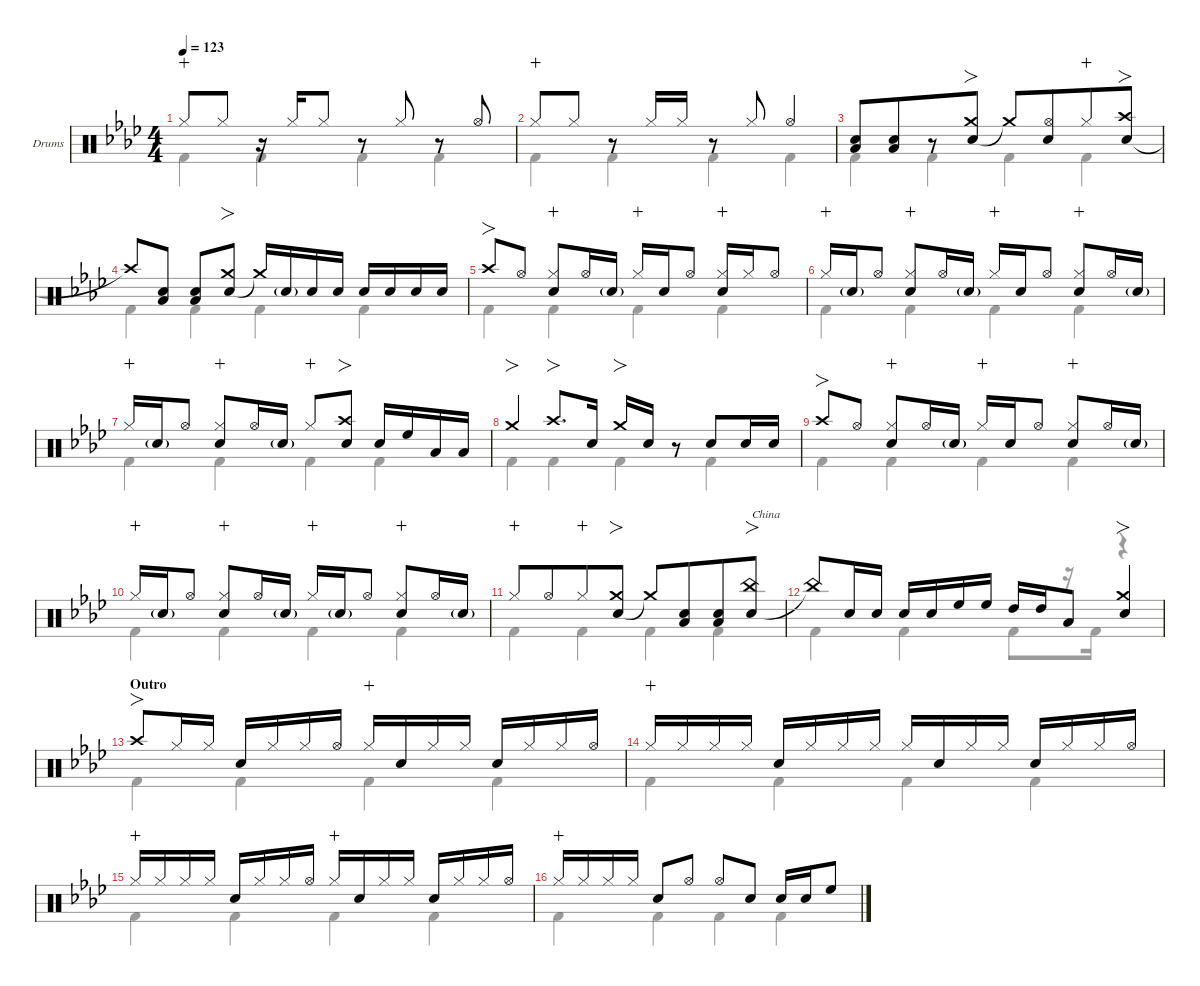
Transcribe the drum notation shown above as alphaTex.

\defaultSystemsLayout 4
\hideDynamics
\bracketExtendMode nobrackets
\firstSystemTrackNameOrientation horizontal
\track ("Drums" "Drums") {defaultSystemsLayout 4 instrument percussion}
\staff {score}
\articulation defaults
\voice
\ts (4 4)
\tempo 123
\clef neutral
\scale
0.266618
\ks ab "Hi-Hat (closed)"{acc forcenatural}.8{dy mp wahc beam Up} "Hi-Hat (closed)"{acc forcenatural}.8{dy f beam Up}
r.16{beam Up} "Hi-Hat (closed)"{acc forcenatural}.16{beam Up} "Hi-Hat (closed)"{acc forcenatural}.8{dy mf beam Up} r.8{beam Up} "Hi-Hat (closed)"{acc forcenatural}.8{dy f beam Up} r.8{beam Up} "Hi-Hat (open)"{acc forcenatural}.8{beam Up} |
\scale
0.244461 "Hi-Hat (closed)"{acc forcenatural}.8{dy mp wahc beam Up} "Hi-Hat (closed)"{acc forcenatural}.8{dy f beam Up} r.8{beam Up} "Hi-Hat (closed)"{acc forcenatural}.16{beam Up} "Hi-Hat (closed)"{acc forcenatural}.16{dy mf beam Up} r.8{beam Up} "Hi-Hat (closed)"{acc forcenatural}.8{dy f beam Up} "Hi-Hat (open)"{acc forcenatural}.4{beam Up} |
\scale
0.24446 ("Low Tom (hit)"{acc forcenatural} "Snare (hit) 2"{acc forcenatural}).8{beam Up beam merge} ("Low Tom (hit)"{acc forcenatural} "Snare (hit) 2"{acc forcenatural}).8{beam Up beam merge} r.8{beam Up beam merge} ("Snare (hit) 2"{acc forcenatural} "Crash medium (hit)"{acc forcenatural}).8{fo beam Up} "Crash medium (hit)"{t acc forcenatural}.8{beam Up beam merge} ("Snare (hit) 2"{acc forcenatural} "Hi-Hat (open)"{acc forcenatural}).8{beam Up beam merge} "Hi-Hat (closed)"{acc forcenatural}.8{dy mp wahc beam Up} ("Snare (hit) 2"{acc forcenatural} "Crash high (hit)"{acc forcenatural}).8{fo dy f beam Up} |
\scale
0.244461 "Crash high (hit)"{t acc forcenatural}.8{beam Up} ("Snare (hit) 2"{acc forcenatural} "Low Tom (hit)"{acc forcenatural}).8{beam Up} ("Snare (hit) 2"{acc forcenatural} "Low Tom (hit)"{acc forcenatural}).8{beam Up} ("Snare (hit) 2"{acc forcenatural} "Crash medium (hit)"{acc forcenatural}).8{fo beam Up} "Crash medium (hit)"{t acc forcenatural}.16{beam Up} "Snare (hit) 2"{g acc forcenatural}.16{dy mf beam Up} "Snare (hit) 2"{acc forcenatural}.16{dy f beam Up} "Snare (hit) 2"{acc forcenatural}.16{dy mf beam Up} "Snare (hit) 2"{acc forcenatural}.16{dy f beam Up} "Snare (hit) 2"{acc forcenatural}.16{dy mf beam Up} "Snare (hit) 2"{acc forcenatural}.16{dy f beam Up} "Snare (hit) 2"{acc forcenatural}.16{dy mf beam Up} |
\scale
0.266618 "Crash high (hit)"{acc forcenatural}.8{fo dy f beam Up} "Hi-Hat (open)"{acc forcenatural}.8{beam Up} ("Snare (hit) 2"{acc forcenatural} "Hi-Hat (closed)"{acc forcenatural}).8{wahc beam Up beam merge} "Hi-Hat (open)"{acc forcenatural}.16{beam Up} "Snare (hit) 2"{g acc forcenatural}.16{dy mf beam Up} "Hi-Hat (closed)"{acc forcenatural}.16{dy mp wahc beam Up} "Snare (hit) 2"{acc forcenatural}.16{dy f beam Up} "Hi-Hat (open)"{acc forcenatural}.8{beam Up} ("Snare (hit) 2"{acc forcenatural} "Hi-Hat (closed)"{acc forcenatural}).16{wahc beam Up} "Hi-Hat (closed)"{acc forcenatural}.16{beam Up} "Hi-Hat (open)"{acc forcenatural}.8{beam Up} |
\scale
0.244461 "Hi-Hat (closed)"{acc forcenatural}.16{dy mp wahc beam Up} "Snare (hit) 2"{g acc forcenatural}.16{dy mf beam Up} "Hi-Hat (open)"{acc forcenatural}.8{dy f beam Up} ("Snare (hit) 2"{acc forcenatural} "Hi-Hat (closed)"{acc forcenatural}).8{wahc beam Up beam merge} "Hi-Hat (open)"{acc forcenatural}.16{beam Up} "Snare (hit) 2"{g acc forcenatural}.16{dy mf beam Up} "Hi-Hat (closed)"{acc forcenatural}.16{dy mp wahc beam Up} "Snare (hit) 2"{acc forcenatural}.16{dy f beam Up} "Hi-Hat (open)"{acc forcenatural}.8{beam Up} ("Snare (hit) 2"{acc forcenatural} "Hi-Hat (closed)"{acc forcenatural}).8{wahc beam Up beam merge} "Hi-Hat (open)"{acc forcenatural}.16{beam Up} "Snare (hit) 2"{g acc forcenatural}.16{dy mf beam Up} |
\scale
0.24446 "Hi-Hat (closed)"{acc forcenatural}.16{dy mp wahc beam Up} "Snare (hit) 2"{g acc forcenatural}.16{dy mf beam Up} "Hi-Hat (open)"{acc forcenatural}.8{dy f beam Up} ("Snare (hit) 2"{acc forcenatural} "Hi-Hat (closed)"{acc forcenatural}).8{wahc beam Up beam merge} "Hi-Hat (open)"{acc forcenatural}.16{beam Up} "Snare (hit) 2"{g acc forcenatural}.16{dy mf beam Up} "Hi-Hat (closed)"{acc forcenatural}.8{dy mp wahc beam Up} ("Snare (hit) 2"{acc forcenatural} "Crash high (hit)"{acc forcenatural}).8{fo dy f beam Up} "Snare (hit) 2"{acc forcenatural}.16{beam Up} "High Floor Tom (hit)"{acc forcenatural}.16{beam Up} "Low Tom (hit)"{acc forcenatural}.16{beam Up} "Low Tom (hit)"{acc forcenatural}.16{beam Up} |
\scale
0.244461 "Crash medium (hit)"{acc forcenatural}.4{fo beam Up} "Crash high (hit)"{acc forcenatural}.8{fo d beam Up} "Snare (hit) 2"{acc forcenatural}.16{beam Up} "Crash medium (hit)"{acc forcenatural}.16{fo beam Up} "Snare (hit) 2"{acc forcenatural}.16{beam Up} r.8{beam Up} "Snare (hit) 2"{acc forcenatural}.8{beam Up} "Snare (hit) 2"{acc forcenatural}.16{beam Up} "Snare (hit) 2"{acc forcenatural}.16{dy mf beam Up} |
\scale
0.266618 "Crash high (hit)"{acc forcenatural}.8{fo dy f beam Up} "Hi-Hat (open)"{acc forcenatural}.8{beam Up} ("Snare (hit) 2"{acc forcenatural} "Hi-Hat (closed)"{acc forcenatural}).8{wahc beam Up beam merge} "Hi-Hat (open)"{acc forcenatural}.16{beam Up} "Snare (hit) 2"{g acc forcenatural}.16{dy mf beam Up} "Hi-Hat (closed)"{acc forcenatural}.16{dy mp wahc beam Up} "Snare (hit) 2"{acc forcenatural}.16{dy f beam Up} "Hi-Hat (open)"{acc forcenatural}.8{beam Up} ("Snare (hit) 2"{acc forcenatural} "Hi-Hat (closed)"{acc forcenatural}).8{wahc beam Up beam merge} "Hi-Hat (open)"{acc forcenatural}.16{beam Up} "Snare (hit) 2"{g acc forcenatural}.16{dy mf beam Up} |
\scale
0.244461 "Hi-Hat (closed)"{acc forcenatural}.16{dy mp wahc beam Up} "Snare (hit) 2"{g acc forcenatural}.16{dy mf beam Up} "Hi-Hat (open)"{acc forcenatural}.8{dy f beam Up} ("Snare (hit) 2"{acc forcenatural} "Hi-Hat (closed)"{acc forcenatural}).8{wahc beam Up beam merge} "Hi-Hat (open)"{acc forcenatural}.16{beam Up} "Snare (hit) 2"{g acc forcenatural}.16{dy mf beam Up} "Hi-Hat (closed)"{acc forcenatural}.16{dy mp wahc beam Up} "Snare (hit) 2"{g acc forcenatural}.16{dy mf beam Up} "Hi-Hat (open)"{acc forcenatural}.8{dy f beam Up} ("Snare (hit) 2"{acc forcenatural} "Hi-Hat (closed)"{acc forcenatural}).8{wahc beam Up beam merge} "Hi-Hat (open)"{acc forcenatural}.16{beam Up} "Snare (hit) 2"{g acc forcenatural}.16{dy mf beam Up} |
\scale
0.24446 "Hi-Hat (closed)"{acc forcenatural}.8{dy mp wahc beam Up beam merge} "Hi-Hat (open)"{acc forcenatural}.8{dy f beam Up beam merge} "Hi-Hat (closed)"{acc forcenatural}.8{wahc beam Up beam merge} ("Snare (hit) 2"{acc forcenatural} "Crash medium (hit)"{acc forcenatural}).8{fo beam Up} "Crash medium (hit)"{t acc forcenatural}.8{beam Up beam merge} ("Snare (hit) 2"{acc forcenatural} "Low Tom (hit)"{acc forcenatural}).8{beam Up beam merge} ("Snare (hit) 2"{acc forcenatural} "Low Tom (hit)"{acc forcenatural}).8{beam Up beam merge} ("Snare (hit) 2"{acc forcenatural} "China (hit)"{acc forcenatural}).8{fo txt "China" beam Up} |
\scale
0.244461 "China (hit)"{t acc forcenatural}.8{beam Up} "Snare (hit) 2"{acc forcenatural}.16{beam Up} "Snare (hit) 2"{acc forcenatural}.16{dy mf beam Up} "Snare (hit) 2"{acc forcenatural}.16{dy f beam Up} "Snare (hit) 2"{acc forcenatural}.16{dy mf beam Up} "High Floor Tom (hit)"{acc forcenatural}.16{dy f beam Up} "High Floor Tom (hit)"{acc forcenatural}.16{beam Up} "High Tom (hit)"{acc forcenatural}.16{beam Up} "High Tom (hit)"{acc forcenatural}.16{beam Up} "Low Tom (hit)"{acc forcenatural}.8{beam Up} ("Snare (hit) 2"{acc forcenatural} "Crash medium (hit)"{acc forcenatural}).4{fo beam Up} |
\section ("" "Outro")
\scale
0.266618 "Crash high (hit)"{acc forcenatural}.8{fo beam Up} "Hi-Hat (closed)"{acc forcenatural}.16{beam Up} "Hi-Hat (closed)"{acc forcenatural}.16{dy mp beam Up} "Snare (hit) 2"{acc forcenatural}.16{dy f beam Up} "Hi-Hat (closed)"{acc forcenatural}.16{dy mp beam Up} "Hi-Hat (closed)"{acc forcenatural}.16{dy f beam Up} "Hi-Hat (open)"{acc forcenatural}.16{beam Up} "Hi-Hat (closed)"{acc forcenatural}.16{dy mp wahc beam Up} "Snare (hit) 2"{acc forcenatural}.16{dy f beam Up} "Hi-Hat (closed)"{acc forcenatural}.16{beam Up} "Hi-Hat (closed)"{acc forcenatural}.16{dy mp beam Up} "Snare (hit) 2"{acc forcenatural}.16{dy f beam Up} "Hi-Hat (closed)"{acc forcenatural}.16{dy mp beam Up} "Hi-Hat (closed)"{acc forcenatural}.16{dy f beam Up} "Hi-Hat (open)"{acc forcenatural}.16{beam Up} |
\scale
0.244461 "Hi-Hat (closed)"{acc forcenatural}.16{dy mp wahc beam Up} "Hi-Hat (closed)"{acc forcenatural}.16{beam Up} "Hi-Hat (closed)"{acc forcenatural}.16{dy f beam Up} "Hi-Hat (closed)"{acc forcenatural}.16{dy mp beam Up} "Snare (hit) 2"{acc forcenatural}.16{dy f beam Up} "Hi-Hat (closed)"{acc forcenatural}.16{dy mp beam Up} "Hi-Hat (closed)"{acc forcenatural}.16{dy f beam Up} "Hi-Hat (closed)"{acc forcenatural}.16{dy mp beam Up} "Hi-Hat (closed)"{acc forcenatural}.16{dy f beam Up} "Snare (hit) 2"{acc forcenatural}.16{beam Up} "Hi-Hat (closed)"{acc forcenatural}.16{beam Up} "Hi-Hat (closed)"{acc forcenatural}.16{dy mp beam Up} "Snare (hit) 2"{acc forcenatural}.16{dy f beam Up} "Hi-Hat (closed)"{acc forcenatural}.16{dy mp beam Up} "Hi-Hat (closed)"{acc forcenatural}.16{dy f beam Up} "Hi-Hat (open)"{acc forcenatural}.16{beam Up} |
\scale
0.24446 "Hi-Hat (closed)"{acc forcenatural}.16{dy mp wahc beam Up} "Hi-Hat (closed)"{acc forcenatural}.16{beam Up} "Hi-Hat (closed)"{acc forcenatural}.16{dy f beam Up} "Hi-Hat (closed)"{acc forcenatural}.16{dy mp beam Up} "Snare (hit) 2"{acc forcenatural}.16{dy f beam Up} "Hi-Hat (closed)"{acc forcenatural}.16{dy mp beam Up} "Hi-Hat (closed)"{acc forcenatural}.16{dy f beam Up} "Hi-Hat (open)"{acc forcenatural}.16{beam Up} "Hi-Hat (closed)"{acc forcenatural}.16{dy mp wahc beam Up} "Snare (hit) 2"{acc forcenatural}.16{dy f beam Up} "Hi-Hat (closed)"{acc forcenatural}.16{beam Up} "Hi-Hat (closed)"{acc forcenatural}.16{dy mp beam Up} "Snare (hit) 2"{acc forcenatural}.16{dy f beam Up} "Hi-Hat (closed)"{acc forcenatural}.16{dy mp beam Up} "Hi-Hat (closed)"{acc forcenatural}.16{dy f beam Up} "Hi-Hat (open)"{acc forcenatural}.16{beam Up} |
\scale
0.244461 "Hi-Hat (closed)"{acc forcenatural}.16{dy mp wahc beam Up} "Hi-Hat (closed)"{acc forcenatural}.16{beam Up} "Hi-Hat (closed)"{acc forcenatural}.16{dy f beam Up} "Hi-Hat (closed)"{acc forcenatural}.16{dy mp beam Up} "Snare (hit) 2"{acc forcenatural}.8{dy f beam Up} "Hi-Hat (open)"{acc forcenatural}.8{dy mp beam Up} "Hi-Hat (open)"{acc forcenatural}.8{dy mf beam Up} "Snare (hit) 2"{acc forcenatural}.8{dy f beam Up} "Snare (hit) 2"{acc forcenatural}.16{beam Up} "Snare (hit) 2"{acc forcenatural}.16{beam Up} "High Floor Tom (hit)"{acc forcenatural}.8{beam Up}
\voice
\clef neutral
\ottava regular
\simile none
\scale
0.266618
\ks ab "Kick (hit) 2"{acc forcenatural}.4{dy f beam Down} "Kick (hit) 2"{acc forcenatural}.4{beam Down} "Kick (hit) 2"{acc forcenatural}.4{beam Down} "Kick (hit) 2"{acc forcenatural}.4{beam Down}
|
\scale
0.244461 "Kick (hit) 2"{acc forcenatural}.4{beam Down} "Kick (hit) 2"{acc forcenatural}.4{beam Down} "Kick (hit) 2"{acc forcenatural}.4{beam Down} "Kick (hit) 2"{acc forcenatural}.4{beam Down} |
\scale
0.24446 "Kick (hit) 2"{acc forcenatural}.4{beam Down} "Kick (hit) 2"{acc forcenatural}.4{beam Down} "Kick (hit) 2"{acc forcenatural}.4{beam Down} "Kick (hit) 2"{acc forcenatural}.4{beam Down} |
\scale
0.244461 "Kick (hit) 2"{acc forcenatural}.4{beam Down} "Kick (hit) 2"{acc forcenatural}.4{beam Down} "Kick (hit) 2"{acc forcenatural}.4{beam Down} "Kick (hit) 2"{acc forcenatural}.4{beam Down} |
\scale
0.266618 "Kick (hit) 2"{acc forcenatural}.4{beam Down} "Kick (hit) 2"{acc forcenatural}.4{beam Down} "Kick (hit) 2"{acc forcenatural}.4{beam Down} "Kick (hit) 2"{acc forcenatural}.4{beam Down} |
\scale
0.244461 "Kick (hit) 2"{acc forcenatural}.4{beam Down} "Kick (hit) 2"{acc forcenatural}.4{beam Down} "Kick (hit) 2"{acc forcenatural}.4{beam Down} "Kick (hit) 2"{acc forcenatural}.4{beam Down} |
\scale
0.24446 "Kick (hit) 2"{acc forcenatural}.4{beam Down} "Kick (hit) 2"{acc forcenatural}.4{beam Down} "Kick (hit) 2"{acc forcenatural}.4{beam Down} "Kick (hit) 2"{acc forcenatural}.4{beam Down} |
\scale
0.244461 "Kick (hit) 2"{acc forcenatural}.4{beam Down} "Kick (hit) 2"{acc forcenatural}.4{beam Down} "Kick (hit) 2"{acc forcenatural}.4{beam Down} "Kick (hit) 2"{acc forcenatural}.4{beam Down} |
\scale
0.266618 "Kick (hit) 2"{acc forcenatural}.4{beam Down} "Kick (hit) 2"{acc forcenatural}.4{beam Down} "Kick (hit) 2"{acc forcenatural}.4{beam Down} "Kick (hit) 2"{acc forcenatural}.4{beam Down} |
\scale
0.244461 "Kick (hit) 2"{acc forcenatural}.4{beam Down} "Kick (hit) 2"{acc forcenatural}.4{beam Down} "Kick (hit) 2"{acc forcenatural}.4{beam Down} "Kick (hit) 2"{acc forcenatural}.4{beam Down} |
\scale
0.24446 "Kick (hit) 2"{acc forcenatural}.4{beam Down} "Kick (hit) 2"{acc forcenatural}.4{beam Down} "Kick (hit) 2"{acc forcenatural}.4{beam Down} "Kick (hit) 2"{acc forcenatural}.4{beam Down} |
\scale
0.244461 "Kick (hit) 2"{acc forcenatural}.4{beam Down} "Kick (hit) 2"{acc forcenatural}.4{beam Down} "Kick (hit) 2"{acc forcenatural}.8{beam Down} r.16{beam Down} "Kick (hit) 2"{acc forcenatural}.16{beam Down} r.4{beam Down} |
\scale
0.266618 "Kick (hit) 2"{acc forcenatural}.4{beam Down} "Kick (hit) 2"{acc forcenatural}.4{beam Down} "Kick (hit) 2"{acc forcenatural}.4{beam Down} "Kick (hit) 2"{acc forcenatural}.4{beam Down} |
\scale
0.244461 "Kick (hit) 2"{acc forcenatural}.4{beam Down} "Kick (hit) 2"{acc forcenatural}.4{beam Down} "Kick (hit) 2"{acc forcenatural}.4{beam Down} "Kick (hit) 2"{acc forcenatural}.4{beam Down} |
\scale
0.24446 "Kick (hit) 2"{acc forcenatural}.4{beam Down} "Kick (hit) 2"{acc forcenatural}.4{beam Down} "Kick (hit) 2"{acc forcenatural}.4{beam Down} "Kick (hit) 2"{acc forcenatural}.4{beam Down} |
\scale
0.244461 "Kick (hit) 2"{acc forcenatural}.4{beam Down} "Kick (hit) 2"{acc forcenatural}.4{beam Down} "Kick (hit) 2"{acc forcenatural}.4{beam Down} "Kick (hit) 2"{acc forcenatural}.4{beam Down}
